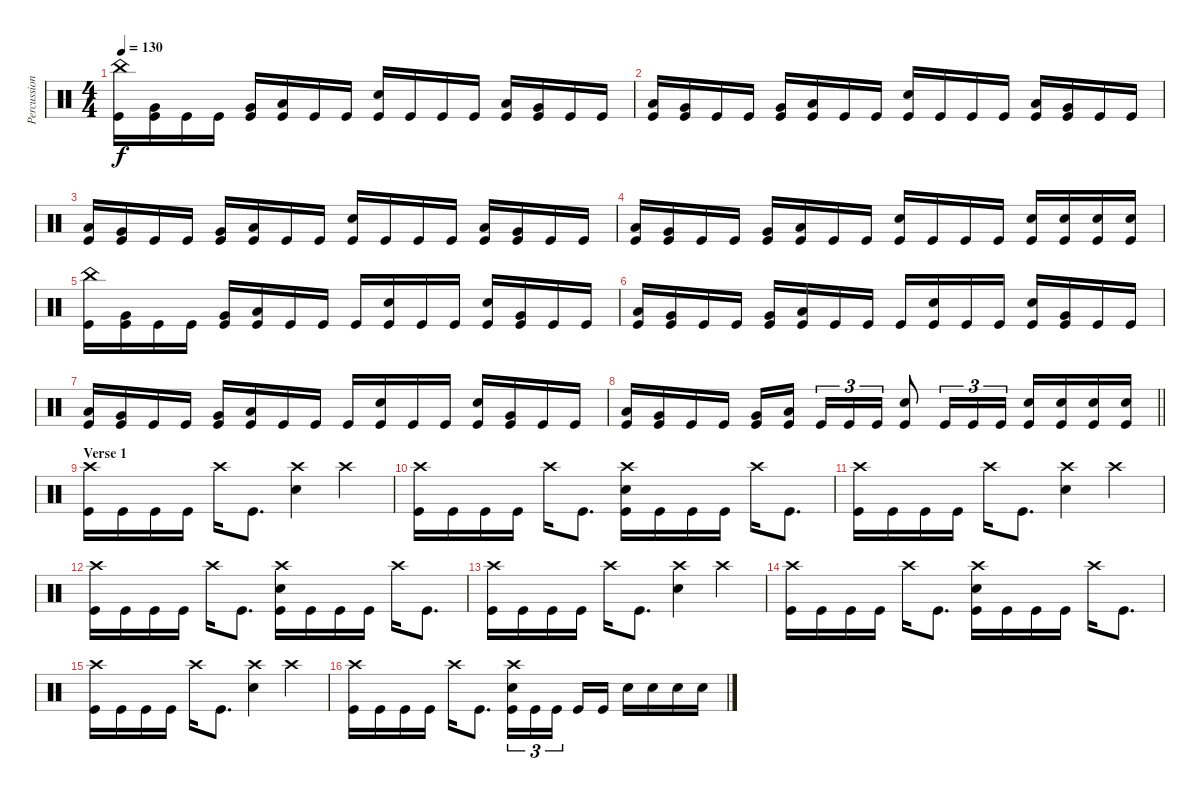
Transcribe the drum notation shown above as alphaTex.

\track ("Percussion" "Percussion") {instrument percussion}
\staff {score}
\articulation defaults
\ts (4 4)
\tempo 130
\clef neutral
\ks c
("China (hit)" "Kick (hit)").16{dy f} ("Very Low Tom (hit)" "Kick (hit)").16 "Kick (hit)".16 "Kick (hit)".16 ("Very Low Tom (hit)" "Kick (hit)").16 ("Low Floor Tom (hit)" "Kick (hit)").16 "Kick (hit)".16 "Kick (hit)".16 ("Snare (hit) 2" "Kick (hit)").16 "Kick (hit)".16 "Kick (hit)".16 "Kick (hit)".16 ("Low Tom (hit)" "Kick (hit)").16 ("Very Low Tom (hit)" "Kick (hit)").16 "Kick (hit)".16 "Kick (hit)".16 |
("Low Tom (hit)" "Kick (hit)").16 ("Very Low Tom (hit)" "Kick (hit)").16 "Kick (hit)".16 "Kick (hit)".16 ("Very Low Tom (hit)" "Kick (hit)").16 ("Low Floor Tom (hit)" "Kick (hit)").16 "Kick (hit)".16 "Kick (hit)".16 ("Snare (hit) 2" "Kick (hit)").16 "Kick (hit)".16 "Kick (hit)".16 "Kick (hit)".16 ("Low Tom (hit)" "Kick (hit)").16 ("Very Low Tom (hit)" "Kick (hit)").16 "Kick (hit)".16 "Kick (hit)".16 |
("Low Tom (hit)" "Kick (hit)").16 ("Very Low Tom (hit)" "Kick (hit)").16 "Kick (hit)".16 "Kick (hit)".16 ("Very Low Tom (hit)" "Kick (hit)").16 ("Low Floor Tom (hit)" "Kick (hit)").16 "Kick (hit)".16 "Kick (hit)".16 ("Snare (hit) 2" "Kick (hit)").16 "Kick (hit)".16 "Kick (hit)".16 "Kick (hit)".16 ("Low Tom (hit)" "Kick (hit)").16 ("Very Low Tom (hit)" "Kick (hit)").16 "Kick (hit)".16 "Kick (hit)".16 |
("Low Tom (hit)" "Kick (hit)").16 ("Very Low Tom (hit)" "Kick (hit)").16 "Kick (hit)".16 "Kick (hit)".16 ("Very Low Tom (hit)" "Kick (hit)").16 ("Low Floor Tom (hit)" "Kick (hit)").16 "Kick (hit)".16 "Kick (hit)".16 ("Snare (hit) 2" "Kick (hit)").16 "Kick (hit)".16 "Kick (hit)".16 "Kick (hit)".16 ("Snare (hit) 2" "Kick (hit)").16 ("Snare (hit) 2" "Kick (hit)").16 ("Snare (hit) 2" "Kick (hit)").16 ("Snare (hit) 2" "Kick (hit)").16 |
("China (hit)" "Kick (hit)").16 ("Very Low Tom (hit)" "Kick (hit)").16 "Kick (hit)".16 "Kick (hit)".16 ("Very Low Tom (hit)" "Kick (hit)").16 ("Low Floor Tom (hit)" "Kick (hit)").16 "Kick (hit)".16 "Kick (hit)".16 "Kick (hit)".16 ("Snare (hit) 2" "Kick (hit)").16 "Kick (hit)".16 "Kick (hit)".16 ("Snare (hit) 2" "Kick (hit)").16 ("Very Low Tom (hit)" "Kick (hit)").16 "Kick (hit)".16 "Kick (hit)".16 |
("Low Tom (hit)" "Kick (hit)").16 ("Very Low Tom (hit)" "Kick (hit)").16 "Kick (hit)".16 "Kick (hit)".16 ("Very Low Tom (hit)" "Kick (hit)").16 ("Low Floor Tom (hit)" "Kick (hit)").16 "Kick (hit)".16 "Kick (hit)".16 "Kick (hit)".16 ("Snare (hit) 2" "Kick (hit)").16 "Kick (hit)".16 "Kick (hit)".16 ("Snare (hit) 2" "Kick (hit)").16 ("Very Low Tom (hit)" "Kick (hit)").16 "Kick (hit)".16 "Kick (hit)".16 |
("Low Tom (hit)" "Kick (hit)").16 ("Very Low Tom (hit)" "Kick (hit)").16 "Kick (hit)".16 "Kick (hit)".16 ("Very Low Tom (hit)" "Kick (hit)").16 ("Low Floor Tom (hit)" "Kick (hit)").16 "Kick (hit)".16 "Kick (hit)".16 "Kick (hit)".16 ("Snare (hit) 2" "Kick (hit)").16 "Kick (hit)".16 "Kick (hit)".16 ("Snare (hit) 2" "Kick (hit)").16 ("Very Low Tom (hit)" "Kick (hit)").16 "Kick (hit)".16 "Kick (hit)".16 |
\barLineRight lightlight
("Low Tom (hit)" "Kick (hit)").16 ("Very Low Tom (hit)" "Kick (hit)").16 "Kick (hit)".16 "Kick (hit)".16 ("Very Low Tom (hit)" "Kick (hit)").16 ("Low Floor Tom (hit)" "Kick (hit)").16{beam splitsecondary} "Kick (hit)".16{tu (3 2)} "Kick (hit)".16{tu (3 2)} "Kick (hit)".16{tu (3 2)} ("Snare (hit) 2" "Kick (hit)").8 "Kick (hit)".16{tu (3 2)} "Kick (hit)".16{tu (3 2)} "Kick (hit)".16{tu (3 2)} ("Snare (hit) 2" "Kick (hit)").16 ("Snare (hit) 2" "Kick (hit)").16 ("Snare (hit) 2" "Kick (hit)").16 ("Snare (hit) 2" "Kick (hit)").16 |
\section ("" "Verse 1")
("Crash high (hit)" "Kick (hit)").16 "Kick (hit)".16 "Kick (hit)".16 "Kick (hit)".16 "Crash high (hit)".16 "Kick (hit)".8{d} ("Crash high (hit)" "Snare (hit) 2").4 "Crash high (hit)".4 |
("Crash high (hit)" "Kick (hit)").16 "Kick (hit)".16 "Kick (hit)".16 "Kick (hit)".16 "Crash high (hit)".16 "Kick (hit)".8{d} ("Crash high (hit)" "Snare (hit) 2" "Kick (hit)").16 "Kick (hit)".16 "Kick (hit)".16 "Kick (hit)".16 "Crash high (hit)".16 "Kick (hit)".8{d} |
("Crash high (hit)" "Kick (hit)").16 "Kick (hit)".16 "Kick (hit)".16 "Kick (hit)".16 "Crash high (hit)".16 "Kick (hit)".8{d} ("Crash high (hit)" "Snare (hit) 2").4 "Crash high (hit)".4 |
("Crash high (hit)" "Kick (hit)").16 "Kick (hit)".16 "Kick (hit)".16 "Kick (hit)".16 "Crash high (hit)".16 "Kick (hit)".8{d} ("Crash high (hit)" "Snare (hit) 2" "Kick (hit)").16 "Kick (hit)".16 "Kick (hit)".16 "Kick (hit)".16 "Crash high (hit)".16 "Kick (hit)".8{d} |
("Crash high (hit)" "Kick (hit)").16 "Kick (hit)".16 "Kick (hit)".16 "Kick (hit)".16 "Crash high (hit)".16 "Kick (hit)".8{d} ("Crash high (hit)" "Snare (hit) 2").4 "Crash high (hit)".4 |
("Crash high (hit)" "Kick (hit)").16 "Kick (hit)".16 "Kick (hit)".16 "Kick (hit)".16 "Crash high (hit)".16 "Kick (hit)".8{d} ("Crash high (hit)" "Snare (hit) 2" "Kick (hit)").16 "Kick (hit)".16 "Kick (hit)".16 "Kick (hit)".16 "Crash high (hit)".16 "Kick (hit)".8{d} |
("Crash high (hit)" "Kick (hit)").16 "Kick (hit)".16 "Kick (hit)".16 "Kick (hit)".16 "Crash high (hit)".16 "Kick (hit)".8{d} ("Crash high (hit)" "Snare (hit) 2").4 "Crash high (hit)".4 |
("Crash high (hit)" "Kick (hit)").16 "Kick (hit)".16 "Kick (hit)".16 "Kick (hit)".16 "Crash high (hit)".16 "Kick (hit)".8{d} ("Crash high (hit)" "Snare (hit) 2" "Kick (hit)").16{tu (3 2)} "Kick (hit)".16{tu (3 2)} "Kick (hit)".16{tu (3 2) beam splitsecondary} "Kick (hit)".16 "Kick (hit)".16 "Snare (hit) 2".16 "Snare (hit) 2".16 "Snare (hit) 2".16 "Snare (hit) 2".16
